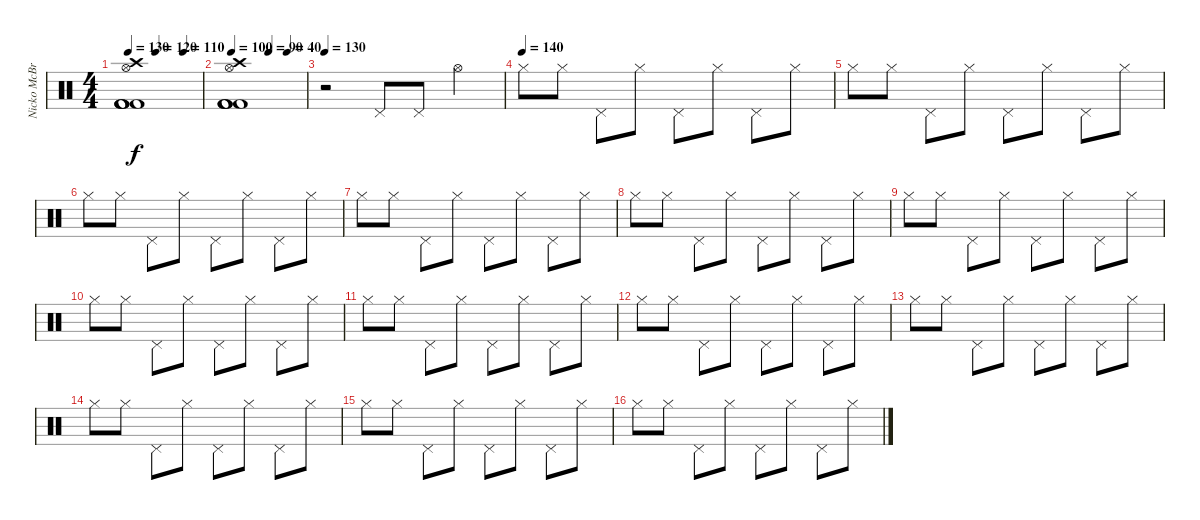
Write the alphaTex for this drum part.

\track ("Nicko McBrain" "Nicko McBr") {instrument percussion}
\staff {score}
\articulation defaults
\ts (4 4)
\tempo 130
\tempo (120 0.375)
\tempo (110 0.75)
\clef neutral
\ks c
("Crash high (hit)" "Hi-Hat (open)" "Kick (hit) 2" "Kick (hit) 2" "Kick (hit) 2" "Kick (hit) 2").1{dy f} |
\tempo 100
\tempo (90 0.5)
\tempo (40 0.75)
("Crash high (hit)" "Hi-Hat (open)" "Kick (hit) 2" "Kick (hit) 2" "Kick (hit) 2" "Kick (hit) 2").1 |
\tempo 130
r.2 "Pedal Hi-Hat (hit)".8 "Pedal Hi-Hat (hit)".8 "Hi-Hat (open)".4 |
\tempo (140)
"Hi-Hat (closed)".8 "Hi-Hat (closed)".8 "Pedal Hi-Hat (hit)".8 "Hi-Hat (closed)".8 "Pedal Hi-Hat (hit)".8 "Hi-Hat (closed)".8 "Pedal Hi-Hat (hit)".8 "Hi-Hat (closed)".8 |
"Hi-Hat (closed)".8 "Hi-Hat (closed)".8 "Pedal Hi-Hat (hit)".8 "Hi-Hat (closed)".8 "Pedal Hi-Hat (hit)".8 "Hi-Hat (closed)".8 "Pedal Hi-Hat (hit)".8 "Hi-Hat (closed)".8 |
"Hi-Hat (closed)".8 "Hi-Hat (closed)".8 "Pedal Hi-Hat (hit)".8 "Hi-Hat (closed)".8 "Pedal Hi-Hat (hit)".8 "Hi-Hat (closed)".8 "Pedal Hi-Hat (hit)".8 "Hi-Hat (closed)".8 |
"Hi-Hat (closed)".8 "Hi-Hat (closed)".8 "Pedal Hi-Hat (hit)".8 "Hi-Hat (closed)".8 "Pedal Hi-Hat (hit)".8 "Hi-Hat (closed)".8 "Pedal Hi-Hat (hit)".8 "Hi-Hat (closed)".8 |
"Hi-Hat (closed)".8 "Hi-Hat (closed)".8 "Pedal Hi-Hat (hit)".8 "Hi-Hat (closed)".8 "Pedal Hi-Hat (hit)".8 "Hi-Hat (closed)".8 "Pedal Hi-Hat (hit)".8 "Hi-Hat (closed)".8 |
"Hi-Hat (closed)".8 "Hi-Hat (closed)".8 "Pedal Hi-Hat (hit)".8 "Hi-Hat (closed)".8 "Pedal Hi-Hat (hit)".8 "Hi-Hat (closed)".8 "Pedal Hi-Hat (hit)".8 "Hi-Hat (closed)".8 |
"Hi-Hat (closed)".8 "Hi-Hat (closed)".8 "Pedal Hi-Hat (hit)".8 "Hi-Hat (closed)".8 "Pedal Hi-Hat (hit)".8 "Hi-Hat (closed)".8 "Pedal Hi-Hat (hit)".8 "Hi-Hat (closed)".8 |
"Hi-Hat (closed)".8 "Hi-Hat (closed)".8 "Pedal Hi-Hat (hit)".8 "Hi-Hat (closed)".8 "Pedal Hi-Hat (hit)".8 "Hi-Hat (closed)".8 "Pedal Hi-Hat (hit)".8 "Hi-Hat (closed)".8 |
"Hi-Hat (closed)".8 "Hi-Hat (closed)".8 "Pedal Hi-Hat (hit)".8 "Hi-Hat (closed)".8 "Pedal Hi-Hat (hit)".8 "Hi-Hat (closed)".8 "Pedal Hi-Hat (hit)".8 "Hi-Hat (closed)".8 |
"Hi-Hat (closed)".8 "Hi-Hat (closed)".8 "Pedal Hi-Hat (hit)".8 "Hi-Hat (closed)".8 "Pedal Hi-Hat (hit)".8 "Hi-Hat (closed)".8 "Pedal Hi-Hat (hit)".8 "Hi-Hat (closed)".8 |
"Hi-Hat (closed)".8 "Hi-Hat (closed)".8 "Pedal Hi-Hat (hit)".8 "Hi-Hat (closed)".8 "Pedal Hi-Hat (hit)".8 "Hi-Hat (closed)".8 "Pedal Hi-Hat (hit)".8 "Hi-Hat (closed)".8 |
"Hi-Hat (closed)".8 "Hi-Hat (closed)".8 "Pedal Hi-Hat (hit)".8 "Hi-Hat (closed)".8 "Pedal Hi-Hat (hit)".8 "Hi-Hat (closed)".8 "Pedal Hi-Hat (hit)".8 "Hi-Hat (closed)".8 |
"Hi-Hat (closed)".8 "Hi-Hat (closed)".8 "Pedal Hi-Hat (hit)".8 "Hi-Hat (closed)".8 "Pedal Hi-Hat (hit)".8 "Hi-Hat (closed)".8 "Pedal Hi-Hat (hit)".8 "Hi-Hat (closed)".8
